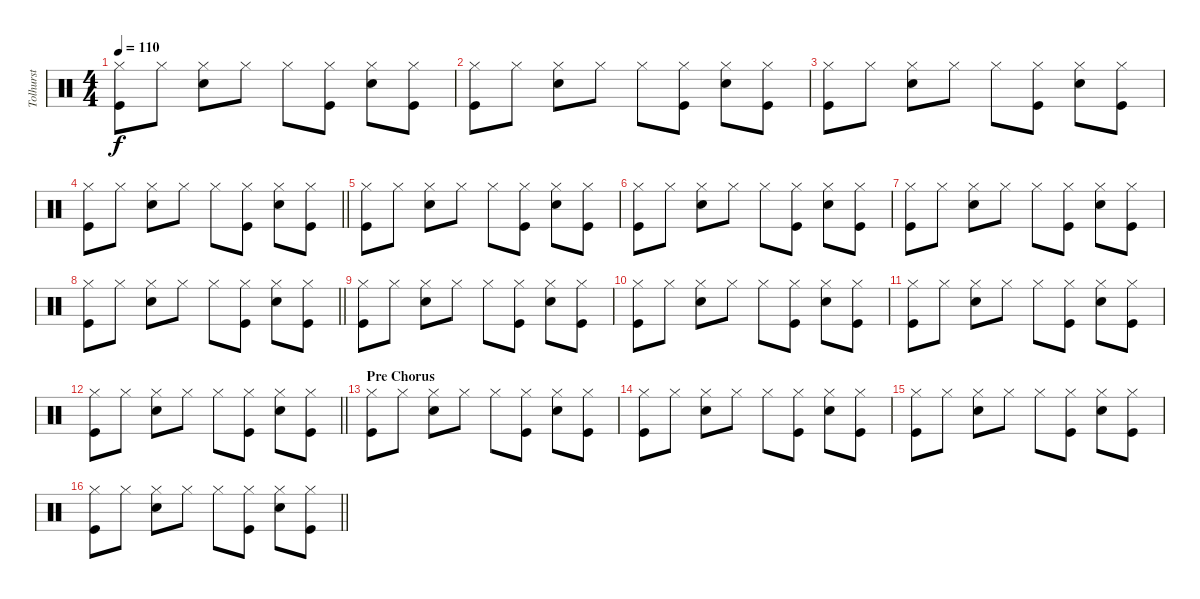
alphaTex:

\track ("Tolhurst" "Tolhurst") {instrument percussion}
\staff {score}
\articulation defaults
\ts (4 4)
\tempo 110
\clef neutral
\ks c
("Hi-Hat (closed)" "Kick (hit)").8{dy f} "Hi-Hat (closed)".8 ("Hi-Hat (closed)" "Electric Snare (hit)").8 "Hi-Hat (closed)".8 "Hi-Hat (closed)".8 ("Hi-Hat (closed)" "Kick (hit)").8 ("Hi-Hat (closed)" "Electric Snare (hit)").8 ("Hi-Hat (closed)" "Kick (hit)").8 |
("Hi-Hat (closed)" "Kick (hit)").8 "Hi-Hat (closed)".8 ("Hi-Hat (closed)" "Electric Snare (hit)").8 "Hi-Hat (closed)".8 "Hi-Hat (closed)".8 ("Hi-Hat (closed)" "Kick (hit)").8 ("Hi-Hat (closed)" "Electric Snare (hit)").8 ("Hi-Hat (closed)" "Kick (hit)").8 |
("Hi-Hat (closed)" "Kick (hit)").8 "Hi-Hat (closed)".8 ("Hi-Hat (closed)" "Electric Snare (hit)").8 "Hi-Hat (closed)".8 "Hi-Hat (closed)".8 ("Hi-Hat (closed)" "Kick (hit)").8 ("Hi-Hat (closed)" "Electric Snare (hit)").8 ("Hi-Hat (closed)" "Kick (hit)").8 |
\barLineRight lightlight
("Hi-Hat (closed)" "Kick (hit)").8 "Hi-Hat (closed)".8 ("Hi-Hat (closed)" "Electric Snare (hit)").8 "Hi-Hat (closed)".8 "Hi-Hat (closed)".8 ("Hi-Hat (closed)" "Kick (hit)").8 ("Hi-Hat (closed)" "Electric Snare (hit)").8 ("Hi-Hat (closed)" "Kick (hit)").8 |
("Hi-Hat (closed)" "Kick (hit)").8 "Hi-Hat (closed)".8 ("Hi-Hat (closed)" "Electric Snare (hit)").8 "Hi-Hat (closed)".8 "Hi-Hat (closed)".8 ("Hi-Hat (closed)" "Kick (hit)").8 ("Hi-Hat (closed)" "Electric Snare (hit)").8 ("Hi-Hat (closed)" "Kick (hit)").8 |
("Hi-Hat (closed)" "Kick (hit)").8 "Hi-Hat (closed)".8 ("Hi-Hat (closed)" "Electric Snare (hit)").8 "Hi-Hat (closed)".8 "Hi-Hat (closed)".8 ("Hi-Hat (closed)" "Kick (hit)").8 ("Hi-Hat (closed)" "Electric Snare (hit)").8 ("Hi-Hat (closed)" "Kick (hit)").8 |
("Hi-Hat (closed)" "Kick (hit)").8 "Hi-Hat (closed)".8 ("Hi-Hat (closed)" "Electric Snare (hit)").8 "Hi-Hat (closed)".8 "Hi-Hat (closed)".8 ("Hi-Hat (closed)" "Kick (hit)").8 ("Hi-Hat (closed)" "Electric Snare (hit)").8 ("Hi-Hat (closed)" "Kick (hit)").8 |
\barLineRight lightlight
("Hi-Hat (closed)" "Kick (hit)").8 "Hi-Hat (closed)".8 ("Hi-Hat (closed)" "Electric Snare (hit)").8 "Hi-Hat (closed)".8 "Hi-Hat (closed)".8 ("Hi-Hat (closed)" "Kick (hit)").8 ("Hi-Hat (closed)" "Electric Snare (hit)").8 ("Hi-Hat (closed)" "Kick (hit)").8 |
("Hi-Hat (closed)" "Kick (hit)").8 "Hi-Hat (closed)".8 ("Hi-Hat (closed)" "Electric Snare (hit)").8 "Hi-Hat (closed)".8 "Hi-Hat (closed)".8 ("Hi-Hat (closed)" "Kick (hit)").8 ("Hi-Hat (closed)" "Electric Snare (hit)").8 ("Hi-Hat (closed)" "Kick (hit)").8 |
("Hi-Hat (closed)" "Kick (hit)").8 "Hi-Hat (closed)".8 ("Hi-Hat (closed)" "Electric Snare (hit)").8 "Hi-Hat (closed)".8 "Hi-Hat (closed)".8 ("Hi-Hat (closed)" "Kick (hit)").8 ("Hi-Hat (closed)" "Electric Snare (hit)").8 ("Hi-Hat (closed)" "Kick (hit)").8 |
("Hi-Hat (closed)" "Kick (hit)").8 "Hi-Hat (closed)".8 ("Hi-Hat (closed)" "Electric Snare (hit)").8 "Hi-Hat (closed)".8 "Hi-Hat (closed)".8 ("Hi-Hat (closed)" "Kick (hit)").8 ("Hi-Hat (closed)" "Electric Snare (hit)").8 ("Hi-Hat (closed)" "Kick (hit)").8 |
\barLineRight lightlight
("Hi-Hat (closed)" "Kick (hit)").8 "Hi-Hat (closed)".8 ("Hi-Hat (closed)" "Electric Snare (hit)").8 "Hi-Hat (closed)".8 "Hi-Hat (closed)".8 ("Hi-Hat (closed)" "Kick (hit)").8 ("Hi-Hat (closed)" "Electric Snare (hit)").8 ("Hi-Hat (closed)" "Kick (hit)").8 |
\section ("" "Pre Chorus")
("Hi-Hat (closed)" "Kick (hit)").8 "Hi-Hat (closed)".8 ("Hi-Hat (closed)" "Electric Snare (hit)").8 "Hi-Hat (closed)".8 "Hi-Hat (closed)".8 ("Hi-Hat (closed)" "Kick (hit)").8 ("Hi-Hat (closed)" "Electric Snare (hit)").8 ("Hi-Hat (closed)" "Kick (hit)").8 |
("Hi-Hat (closed)" "Kick (hit)").8 "Hi-Hat (closed)".8 ("Hi-Hat (closed)" "Electric Snare (hit)").8 "Hi-Hat (closed)".8 "Hi-Hat (closed)".8 ("Hi-Hat (closed)" "Kick (hit)").8 ("Hi-Hat (closed)" "Electric Snare (hit)").8 ("Hi-Hat (closed)" "Kick (hit)").8 |
("Hi-Hat (closed)" "Kick (hit)").8 "Hi-Hat (closed)".8 ("Hi-Hat (closed)" "Electric Snare (hit)").8 "Hi-Hat (closed)".8 "Hi-Hat (closed)".8 ("Hi-Hat (closed)" "Kick (hit)").8 ("Hi-Hat (closed)" "Electric Snare (hit)").8 ("Hi-Hat (closed)" "Kick (hit)").8 |
\barLineRight lightlight
("Hi-Hat (closed)" "Kick (hit)").8 "Hi-Hat (closed)".8 ("Hi-Hat (closed)" "Electric Snare (hit)").8 "Hi-Hat (closed)".8 "Hi-Hat (closed)".8 ("Hi-Hat (closed)" "Kick (hit)").8 ("Hi-Hat (closed)" "Electric Snare (hit)").8 ("Hi-Hat (closed)" "Kick (hit)").8
